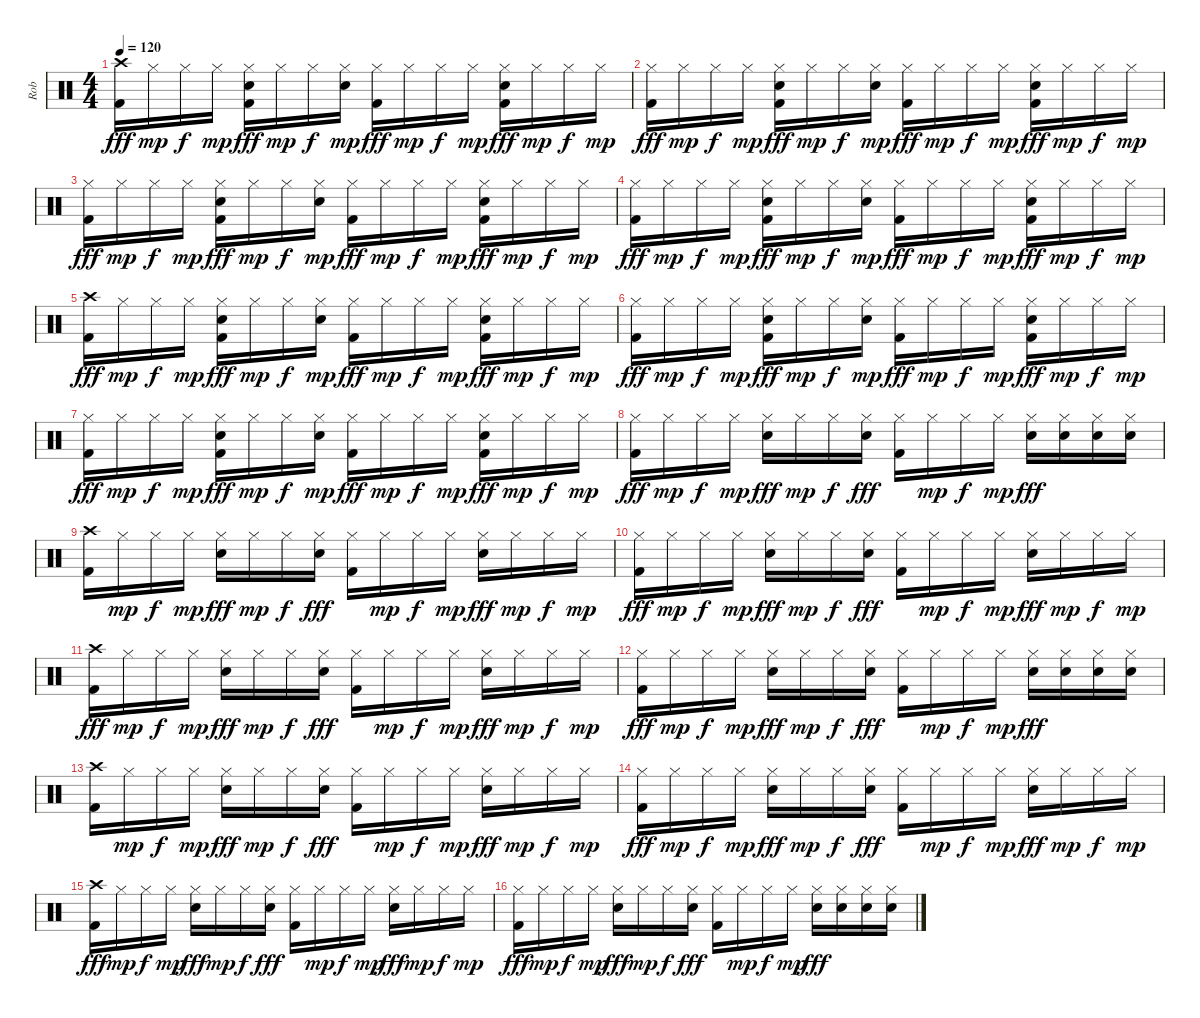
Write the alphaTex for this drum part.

\track ("Rob" "Rob") {instrument percussion}
\staff {score}
\articulation defaults
\ts (4 4)
\tempo 120
\clef neutral
\ks c
("Crash high (hit)" "Kick (hit) 2").16{dy fff} "Hi-Hat (closed)".16{dy mp} "Hi-Hat (closed)".16{dy f} "Hi-Hat (closed)".16{dy mp} ("Hi-Hat (closed)" "Snare (hit) 2" "Kick (hit) 2").16{dy fff} "Hi-Hat (closed)".16{dy mp} "Hi-Hat (closed)".16{dy f} ("Hi-Hat (closed)" "Snare (hit) 2").16{dy mp} ("Hi-Hat (closed)" "Kick (hit) 2").16{dy fff} "Hi-Hat (closed)".16{dy mp} "Hi-Hat (closed)".16{dy f} "Hi-Hat (closed)".16{dy mp} ("Hi-Hat (closed)" "Snare (hit) 2" "Kick (hit) 2").16{dy fff} "Hi-Hat (closed)".16{dy mp} "Hi-Hat (closed)".16{dy f} "Hi-Hat (closed)".16{dy mp} |
("Hi-Hat (closed)" "Kick (hit) 2").16{dy fff} "Hi-Hat (closed)".16{dy mp} "Hi-Hat (closed)".16{dy f} "Hi-Hat (closed)".16{dy mp} ("Hi-Hat (closed)" "Snare (hit) 2" "Kick (hit) 2").16{dy fff} "Hi-Hat (closed)".16{dy mp} "Hi-Hat (closed)".16{dy f} ("Hi-Hat (closed)" "Snare (hit) 2").16{dy mp} ("Hi-Hat (closed)" "Kick (hit) 2").16{dy fff} "Hi-Hat (closed)".16{dy mp} "Hi-Hat (closed)".16{dy f} "Hi-Hat (closed)".16{dy mp} ("Hi-Hat (closed)" "Snare (hit) 2" "Kick (hit) 2").16{dy fff} "Hi-Hat (closed)".16{dy mp} "Hi-Hat (closed)".16{dy f} "Hi-Hat (closed)".16{dy mp} |
("Hi-Hat (closed)" "Kick (hit) 2").16{dy fff} "Hi-Hat (closed)".16{dy mp} "Hi-Hat (closed)".16{dy f} "Hi-Hat (closed)".16{dy mp} ("Hi-Hat (closed)" "Snare (hit) 2" "Kick (hit) 2").16{dy fff} "Hi-Hat (closed)".16{dy mp} "Hi-Hat (closed)".16{dy f} ("Hi-Hat (closed)" "Snare (hit) 2").16{dy mp} ("Hi-Hat (closed)" "Kick (hit) 2").16{dy fff} "Hi-Hat (closed)".16{dy mp} "Hi-Hat (closed)".16{dy f} "Hi-Hat (closed)".16{dy mp} ("Hi-Hat (closed)" "Snare (hit) 2" "Kick (hit) 2").16{dy fff} "Hi-Hat (closed)".16{dy mp} "Hi-Hat (closed)".16{dy f} "Hi-Hat (closed)".16{dy mp} |
("Hi-Hat (closed)" "Kick (hit) 2").16{dy fff} "Hi-Hat (closed)".16{dy mp} "Hi-Hat (closed)".16{dy f} "Hi-Hat (closed)".16{dy mp} ("Hi-Hat (closed)" "Snare (hit) 2" "Kick (hit) 2").16{dy fff} "Hi-Hat (closed)".16{dy mp} "Hi-Hat (closed)".16{dy f} ("Hi-Hat (closed)" "Snare (hit) 2").16{dy mp} ("Hi-Hat (closed)" "Kick (hit) 2").16{dy fff} "Hi-Hat (closed)".16{dy mp} "Hi-Hat (closed)".16{dy f} "Hi-Hat (closed)".16{dy mp} ("Hi-Hat (closed)" "Snare (hit) 2" "Kick (hit) 2").16{dy fff} "Hi-Hat (closed)".16{dy mp} "Hi-Hat (closed)".16{dy f} "Hi-Hat (closed)".16{dy mp} |
("Crash high (hit)" "Kick (hit) 2").16{dy fff} "Hi-Hat (closed)".16{dy mp} "Hi-Hat (closed)".16{dy f} "Hi-Hat (closed)".16{dy mp} ("Hi-Hat (closed)" "Snare (hit) 2" "Kick (hit) 2").16{dy fff} "Hi-Hat (closed)".16{dy mp} "Hi-Hat (closed)".16{dy f} ("Hi-Hat (closed)" "Snare (hit) 2").16{dy mp} ("Hi-Hat (closed)" "Kick (hit) 2").16{dy fff} "Hi-Hat (closed)".16{dy mp} "Hi-Hat (closed)".16{dy f} "Hi-Hat (closed)".16{dy mp} ("Hi-Hat (closed)" "Snare (hit) 2" "Kick (hit) 2").16{dy fff} "Hi-Hat (closed)".16{dy mp} "Hi-Hat (closed)".16{dy f} "Hi-Hat (closed)".16{dy mp} |
("Hi-Hat (closed)" "Kick (hit) 2").16{dy fff} "Hi-Hat (closed)".16{dy mp} "Hi-Hat (closed)".16{dy f} "Hi-Hat (closed)".16{dy mp} ("Hi-Hat (closed)" "Snare (hit) 2" "Kick (hit) 2").16{dy fff} "Hi-Hat (closed)".16{dy mp} "Hi-Hat (closed)".16{dy f} ("Hi-Hat (closed)" "Snare (hit) 2").16{dy mp} ("Hi-Hat (closed)" "Kick (hit) 2").16{dy fff} "Hi-Hat (closed)".16{dy mp} "Hi-Hat (closed)".16{dy f} "Hi-Hat (closed)".16{dy mp} ("Hi-Hat (closed)" "Snare (hit) 2" "Kick (hit) 2").16{dy fff} "Hi-Hat (closed)".16{dy mp} "Hi-Hat (closed)".16{dy f} "Hi-Hat (closed)".16{dy mp} |
("Hi-Hat (closed)" "Kick (hit) 2").16{dy fff} "Hi-Hat (closed)".16{dy mp} "Hi-Hat (closed)".16{dy f} "Hi-Hat (closed)".16{dy mp} ("Hi-Hat (closed)" "Snare (hit) 2" "Kick (hit) 2").16{dy fff} "Hi-Hat (closed)".16{dy mp} "Hi-Hat (closed)".16{dy f} ("Hi-Hat (closed)" "Snare (hit) 2").16{dy mp} ("Hi-Hat (closed)" "Kick (hit) 2").16{dy fff} "Hi-Hat (closed)".16{dy mp} "Hi-Hat (closed)".16{dy f} "Hi-Hat (closed)".16{dy mp} ("Hi-Hat (closed)" "Snare (hit) 2" "Kick (hit) 2").16{dy fff} "Hi-Hat (closed)".16{dy mp} "Hi-Hat (closed)".16{dy f} "Hi-Hat (closed)".16{dy mp} |
("Hi-Hat (closed)" "Kick (hit) 2").16{dy fff} "Hi-Hat (closed)".16{dy mp} "Hi-Hat (closed)".16{dy f} "Hi-Hat (closed)".16{dy mp} ("Hi-Hat (closed)" "Electric Snare (hit)").16{dy fff} "Hi-Hat (closed)".16{dy mp} "Hi-Hat (closed)".16{dy f} ("Hi-Hat (closed)" "Electric Snare (hit)").16{dy fff} ("Hi-Hat (closed)" "Kick (hit) 2").16 "Hi-Hat (closed)".16{dy mp} "Hi-Hat (closed)".16{dy f} "Hi-Hat (closed)".16{dy mp} ("Hi-Hat (closed)" "Electric Snare (hit)").16{dy fff} ("Hi-Hat (closed)" "Electric Snare (hit)").16 ("Hi-Hat (closed)" "Electric Snare (hit)").16 ("Hi-Hat (closed)" "Electric Snare (hit)").16 |
("Crash high (hit)" "Kick (hit) 2").16 "Hi-Hat (closed)".16{dy mp} "Hi-Hat (closed)".16{dy f} "Hi-Hat (closed)".16{dy mp} ("Hi-Hat (closed)" "Electric Snare (hit)").16{dy fff} "Hi-Hat (closed)".16{dy mp} "Hi-Hat (closed)".16{dy f} ("Hi-Hat (closed)" "Electric Snare (hit)").16{dy fff} ("Hi-Hat (closed)" "Kick (hit) 2").16 "Hi-Hat (closed)".16{dy mp} "Hi-Hat (closed)".16{dy f} "Hi-Hat (closed)".16{dy mp} ("Hi-Hat (closed)" "Electric Snare (hit)").16{dy fff} "Hi-Hat (closed)".16{dy mp} "Hi-Hat (closed)".16{dy f} "Hi-Hat (closed)".16{dy mp} |
("Hi-Hat (closed)" "Kick (hit) 2").16{dy fff} "Hi-Hat (closed)".16{dy mp} "Hi-Hat (closed)".16{dy f} "Hi-Hat (closed)".16{dy mp} ("Hi-Hat (closed)" "Electric Snare (hit)").16{dy fff} "Hi-Hat (closed)".16{dy mp} "Hi-Hat (closed)".16{dy f} ("Hi-Hat (closed)" "Electric Snare (hit)").16{dy fff} ("Hi-Hat (closed)" "Kick (hit) 2").16 "Hi-Hat (closed)".16{dy mp} "Hi-Hat (closed)".16{dy f} "Hi-Hat (closed)".16{dy mp} ("Hi-Hat (closed)" "Electric Snare (hit)").16{dy fff} "Hi-Hat (closed)".16{dy mp} "Hi-Hat (closed)".16{dy f} "Hi-Hat (closed)".16{dy mp} |
("Crash high (hit)" "Kick (hit) 2").16{dy fff} "Hi-Hat (closed)".16{dy mp} "Hi-Hat (closed)".16{dy f} "Hi-Hat (closed)".16{dy mp} ("Hi-Hat (closed)" "Electric Snare (hit)").16{dy fff} "Hi-Hat (closed)".16{dy mp} "Hi-Hat (closed)".16{dy f} ("Hi-Hat (closed)" "Electric Snare (hit)").16{dy fff} ("Hi-Hat (closed)" "Kick (hit) 2").16 "Hi-Hat (closed)".16{dy mp} "Hi-Hat (closed)".16{dy f} "Hi-Hat (closed)".16{dy mp} ("Hi-Hat (closed)" "Electric Snare (hit)").16{dy fff} "Hi-Hat (closed)".16{dy mp} "Hi-Hat (closed)".16{dy f} "Hi-Hat (closed)".16{dy mp} |
("Hi-Hat (closed)" "Kick (hit) 2").16{dy fff} "Hi-Hat (closed)".16{dy mp} "Hi-Hat (closed)".16{dy f} "Hi-Hat (closed)".16{dy mp} ("Hi-Hat (closed)" "Electric Snare (hit)").16{dy fff} "Hi-Hat (closed)".16{dy mp} "Hi-Hat (closed)".16{dy f} ("Hi-Hat (closed)" "Electric Snare (hit)").16{dy fff} ("Hi-Hat (closed)" "Kick (hit) 2").16 "Hi-Hat (closed)".16{dy mp} "Hi-Hat (closed)".16{dy f} "Hi-Hat (closed)".16{dy mp} ("Hi-Hat (closed)" "Electric Snare (hit)").16{dy fff} ("Hi-Hat (closed)" "Electric Snare (hit)").16 ("Hi-Hat (closed)" "Electric Snare (hit)").16 ("Hi-Hat (closed)" "Electric Snare (hit)").16 |
("Crash high (hit)" "Kick (hit) 2").16 "Hi-Hat (closed)".16{dy mp} "Hi-Hat (closed)".16{dy f} "Hi-Hat (closed)".16{dy mp} ("Hi-Hat (closed)" "Electric Snare (hit)").16{dy fff} "Hi-Hat (closed)".16{dy mp} "Hi-Hat (closed)".16{dy f} ("Hi-Hat (closed)" "Electric Snare (hit)").16{dy fff} ("Hi-Hat (closed)" "Kick (hit) 2").16 "Hi-Hat (closed)".16{dy mp} "Hi-Hat (closed)".16{dy f} "Hi-Hat (closed)".16{dy mp} ("Hi-Hat (closed)" "Electric Snare (hit)").16{dy fff} "Hi-Hat (closed)".16{dy mp} "Hi-Hat (closed)".16{dy f} "Hi-Hat (closed)".16{dy mp} |
("Hi-Hat (closed)" "Kick (hit) 2").16{dy fff} "Hi-Hat (closed)".16{dy mp} "Hi-Hat (closed)".16{dy f} "Hi-Hat (closed)".16{dy mp} ("Hi-Hat (closed)" "Electric Snare (hit)").16{dy fff} "Hi-Hat (closed)".16{dy mp} "Hi-Hat (closed)".16{dy f} ("Hi-Hat (closed)" "Electric Snare (hit)").16{dy fff} ("Hi-Hat (closed)" "Kick (hit) 2").16 "Hi-Hat (closed)".16{dy mp} "Hi-Hat (closed)".16{dy f} "Hi-Hat (closed)".16{dy mp} ("Hi-Hat (closed)" "Electric Snare (hit)").16{dy fff} "Hi-Hat (closed)".16{dy mp} "Hi-Hat (closed)".16{dy f} "Hi-Hat (closed)".16{dy mp} |
("Crash high (hit)" "Kick (hit) 2").16{dy fff} "Hi-Hat (closed)".16{dy mp} "Hi-Hat (closed)".16{dy f} "Hi-Hat (closed)".16{dy mp} ("Hi-Hat (closed)" "Electric Snare (hit)").16{dy fff} "Hi-Hat (closed)".16{dy mp} "Hi-Hat (closed)".16{dy f} ("Hi-Hat (closed)" "Electric Snare (hit)").16{dy fff} ("Hi-Hat (closed)" "Kick (hit) 2").16 "Hi-Hat (closed)".16{dy mp} "Hi-Hat (closed)".16{dy f} "Hi-Hat (closed)".16{dy mp} ("Hi-Hat (closed)" "Electric Snare (hit)").16{dy fff} "Hi-Hat (closed)".16{dy mp} "Hi-Hat (closed)".16{dy f} "Hi-Hat (closed)".16{dy mp} |
("Hi-Hat (closed)" "Kick (hit) 2").16{dy fff} "Hi-Hat (closed)".16{dy mp} "Hi-Hat (closed)".16{dy f} "Hi-Hat (closed)".16{dy mp} ("Hi-Hat (closed)" "Electric Snare (hit)").16{dy fff} "Hi-Hat (closed)".16{dy mp} "Hi-Hat (closed)".16{dy f} ("Hi-Hat (closed)" "Electric Snare (hit)").16{dy fff} ("Hi-Hat (closed)" "Kick (hit) 2").16 "Hi-Hat (closed)".16{dy mp} "Hi-Hat (closed)".16{dy f} "Hi-Hat (closed)".16{dy mp} ("Hi-Hat (closed)" "Electric Snare (hit)").16{dy fff} ("Hi-Hat (closed)" "Electric Snare (hit)").16 ("Hi-Hat (closed)" "Electric Snare (hit)").16 ("Hi-Hat (closed)" "Electric Snare (hit)").16
